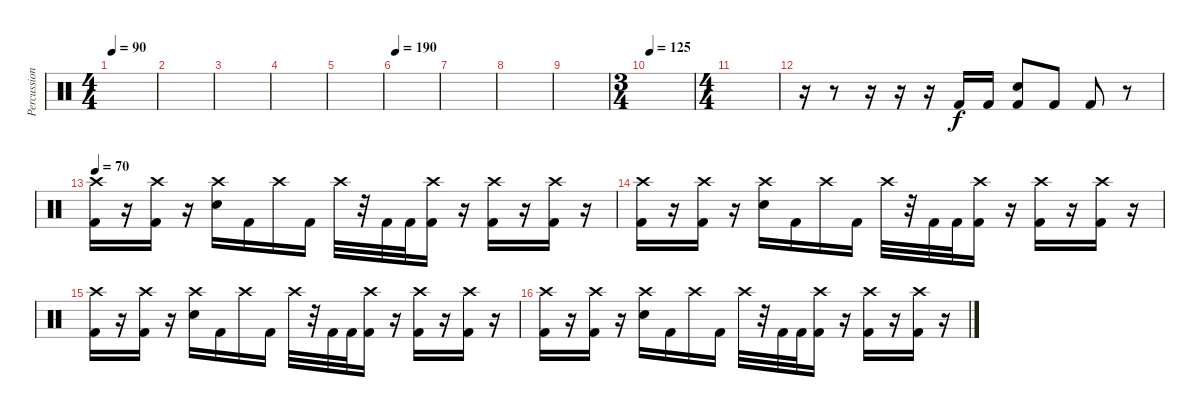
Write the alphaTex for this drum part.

\track ("Percussions" "Percussion") {instrument percussion}
\staff {score}
\articulation defaults
\ts (4 4)
\tempo 90
\clef neutral
\ks c
|
|
|
|
|
\tempo 190
|
|
|
|
\ts (3 4)
\tempo 130
\tempo 125
|
\ts (4 4)
|
r.16 r.8 r.16 r.16 r.16 "Kick (hit) 2".16 "Kick (hit) 2".16 ("Electric Snare (hit)" "Kick (hit) 2").8 "Kick (hit) 2".8 "Kick (hit) 2".8 r.8 |
\tempo 70
("Crash high (hit)" "Kick (hit) 2").16 r.16 ("Crash high (hit)" "Kick (hit) 2").16 r.16 ("Crash high (hit)" "Electric Snare (hit)").16 "Kick (hit) 2".16 "Crash high (hit)".16 "Kick (hit) 2".16 "Crash high (hit)".32 r.32 "Kick (hit) 2".32 "Kick (hit) 2".32 ("Crash high (hit)" "Kick (hit) 2").16 r.16 ("Crash high (hit)" "Kick (hit) 2").16 r.16 ("Crash high (hit)" "Kick (hit) 2").16 r.16 |
("Crash high (hit)" "Kick (hit) 2").16 r.16 ("Crash high (hit)" "Kick (hit) 2").16 r.16 ("Crash high (hit)" "Electric Snare (hit)").16 "Kick (hit) 2".16 "Crash high (hit)".16 "Kick (hit) 2".16 "Crash high (hit)".32 r.32 "Kick (hit) 2".32 "Kick (hit) 2".32 ("Crash high (hit)" "Kick (hit) 2").16 r.16 ("Crash high (hit)" "Kick (hit) 2").16 r.16 ("Crash high (hit)" "Kick (hit) 2").16 r.16 |
("Crash high (hit)" "Kick (hit) 2").16 r.16 ("Crash high (hit)" "Kick (hit) 2").16 r.16 ("Crash high (hit)" "Electric Snare (hit)").16 "Kick (hit) 2".16 "Crash high (hit)".16 "Kick (hit) 2".16 "Crash high (hit)".32 r.32 "Kick (hit) 2".32 "Kick (hit) 2".32 ("Crash high (hit)" "Kick (hit) 2").16 r.16 ("Crash high (hit)" "Kick (hit) 2").16 r.16 ("Crash high (hit)" "Kick (hit) 2").16 r.16 |
("Crash high (hit)" "Kick (hit) 2").16 r.16 ("Crash high (hit)" "Kick (hit) 2").16 r.16 ("Crash high (hit)" "Electric Snare (hit)").16 "Kick (hit) 2".16 "Crash high (hit)".16 "Kick (hit) 2".16 "Crash high (hit)".32 r.32 "Kick (hit) 2".32 "Kick (hit) 2".32 ("Crash high (hit)" "Kick (hit) 2").16 r.16 ("Crash high (hit)" "Kick (hit) 2").16 r.16 ("Crash high (hit)" "Kick (hit) 2").16 r.16
